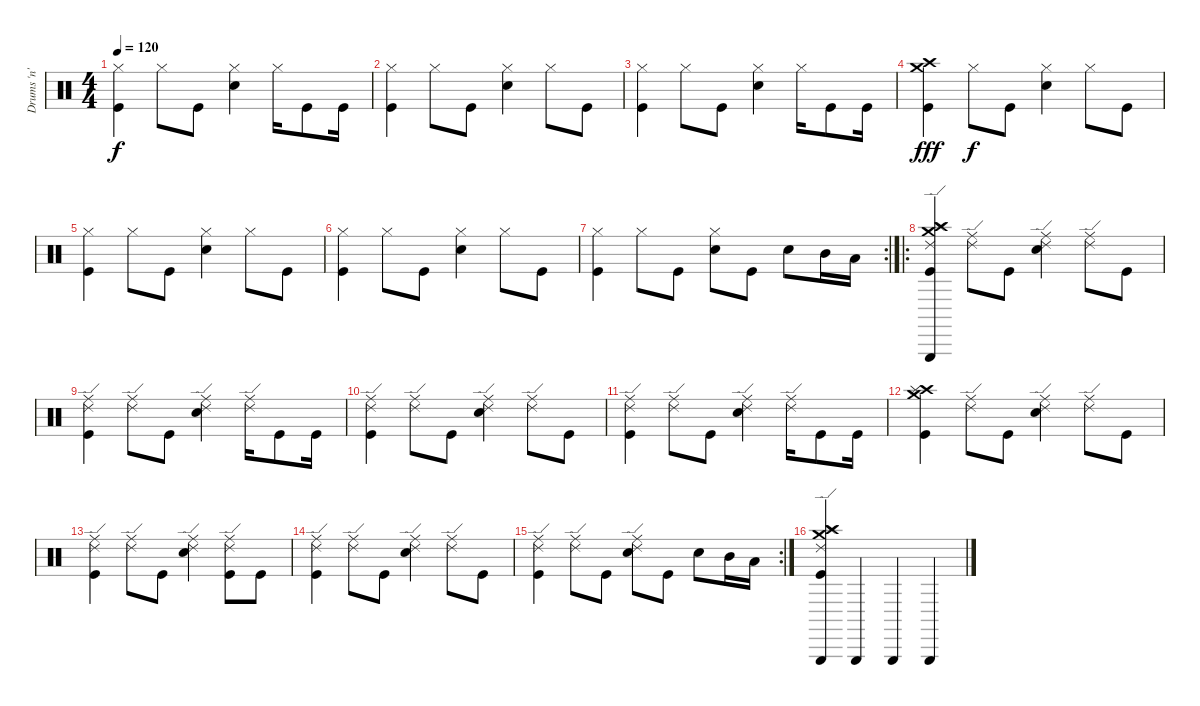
\track ("Drums 'n' Such" "Drums 'n' ") {instrument percussion}
\staff {score}
\articulation defaults
\ts (4 4)
\tempo 120
\clef neutral
\ks c
("Hi-Hat (closed)" "Kick (hit)").4{dy f} "Hi-Hat (closed)".8 "Kick (hit)".8 ("Hi-Hat (closed)" "Snare (hit) 2").4 "Hi-Hat (closed)".16 "Kick (hit)".8 "Kick (hit)".16 |
("Hi-Hat (closed)" "Kick (hit)").4 "Hi-Hat (closed)".8 "Kick (hit)".8 ("Hi-Hat (closed)" "Snare (hit) 2").4 "Hi-Hat (closed)".8 "Kick (hit)".8 |
("Hi-Hat (closed)" "Kick (hit)").4 "Hi-Hat (closed)".8 "Kick (hit)".8 ("Hi-Hat (closed)" "Snare (hit) 2").4 "Hi-Hat (closed)".16 "Kick (hit)".8 "Kick (hit)".16 |
("Crash high (hit)" "Crash medium (hit)" "Kick (hit)").4{dy fff} "Hi-Hat (closed)".8{dy f} "Kick (hit)".8 ("Hi-Hat (closed)" "Snare (hit) 2").4 "Hi-Hat (closed)".8 "Kick (hit)".8 |
("Hi-Hat (closed)" "Kick (hit)").4 "Hi-Hat (closed)".8 "Kick (hit)".8 ("Hi-Hat (closed)" "Snare (hit) 2").4 "Hi-Hat (closed)".8 "Kick (hit)".8 |
("Hi-Hat (closed)" "Kick (hit)").4 "Hi-Hat (closed)".8 "Kick (hit)".8 ("Hi-Hat (closed)" "Snare (hit) 2").4 "Hi-Hat (closed)".8 "Kick (hit)".8 |
\rc 2
("Hi-Hat (closed)" "Kick (hit)").4 "Hi-Hat (closed)".8 "Kick (hit)".8 ("Hi-Hat (closed)" "Snare (hit) 2").8 "Kick (hit)".8 "Snare (hit) 2".8 "Mid Tom (hit)".16 "Low Tom (hit)".16 |
\ro
("Crash high (hit)" "Crash medium (hit)" "Splash (hit)" "Kick (hit)" "Triangle (hit)" "Ride (edge) 2").4 ("Ride (middle)" "Ride (edge) 2").8 "Kick (hit)".8 ("Ride (middle)" "Ride (edge) 2" "Snare (hit) 2").4 ("Ride (middle)" "Ride (edge) 2").8 "Kick (hit)".8 |
("Ride (middle)" "Ride (edge) 2" "Kick (hit)").4 ("Ride (middle)" "Ride (edge) 2").8 "Kick (hit)".8 ("Ride (middle)" "Ride (edge) 2" "Snare (hit) 2").4 ("Ride (middle)" "Ride (edge) 2").16 "Kick (hit)".8 "Kick (hit)".16 |
("Ride (middle)" "Ride (edge) 2" "Kick (hit)").4 ("Ride (middle)" "Ride (edge) 2").8 "Kick (hit)".8 ("Ride (middle)" "Ride (edge) 2" "Snare (hit) 2").4 ("Ride (middle)" "Ride (edge) 2").8 "Kick (hit)".8 |
("Ride (middle)" "Ride (edge) 2" "Kick (hit)").4 ("Ride (middle)" "Ride (edge) 2").8 "Kick (hit)".8 ("Ride (middle)" "Ride (edge) 2" "Snare (hit) 2").4 ("Ride (middle)" "Ride (edge) 2").16 "Kick (hit)".8 "Kick (hit)".16 |
("Crash high (hit)" "Crash medium (hit)" "Splash (hit)" "Kick (hit)").4 ("Ride (middle)" "Ride (edge) 2").8 "Kick (hit)".8 ("Ride (middle)" "Ride (edge) 2" "Snare (hit) 2").4 ("Ride (middle)" "Ride (edge) 2").8 "Kick (hit)".8 |
("Ride (middle)" "Ride (edge) 2" "Kick (hit)").4 ("Ride (middle)" "Ride (edge) 2").8 "Kick (hit)".8 ("Ride (middle)" "Ride (edge) 2" "Snare (hit) 2").4 ("Ride (middle)" "Ride (edge) 2" "Kick (hit)").8 "Kick (hit)".8 |
("Ride (middle)" "Ride (edge) 2" "Kick (hit)").4 ("Ride (middle)" "Ride (edge) 2").8 "Kick (hit)".8 ("Ride (middle)" "Ride (edge) 2" "Snare (hit) 2").4 ("Ride (middle)" "Ride (edge) 2").8 "Kick (hit)".8 |
\rc 2
("Ride (middle)" "Ride (edge) 2" "Kick (hit)").4 ("Ride (middle)" "Ride (edge) 2").8 "Kick (hit)".8 ("Ride (middle)" "Ride (edge) 2" "Snare (hit) 2").8 "Kick (hit)".8 "Snare (hit) 2".8 "Mid Tom (hit)".16 "Low Tom (hit)".16 |
("Crash high (hit)" "Crash medium (hit)" "Splash (hit)" "Kick (hit)" "Triangle (hit)" "Ride (edge) 2").4 "Triangle (hit)".4 "Triangle (hit)".4 "Triangle (hit)".4
